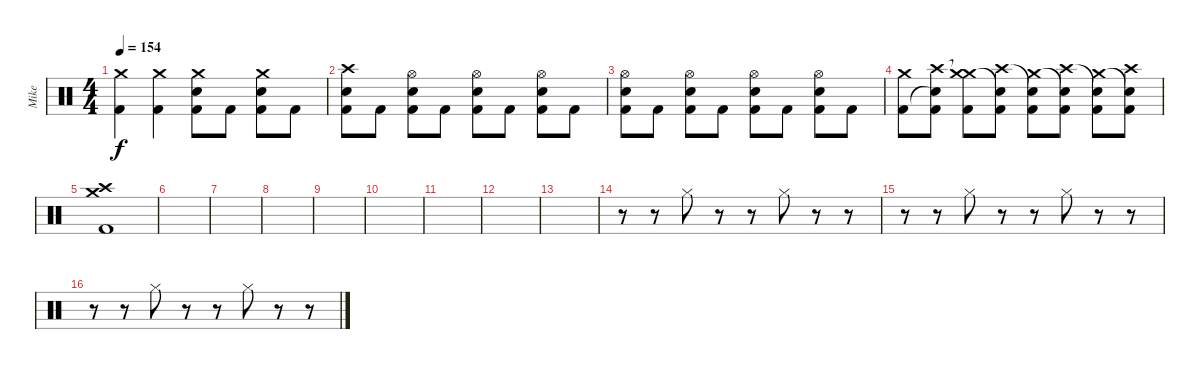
\track ("Mike " "Mike ") {instrument percussion}
\staff {score}
\articulation defaults
\ts (4 4)
\tempo 154
\clef neutral
\ks c
("Crash medium (hit)" "Kick (hit) 2").4{dy f} ("Crash medium (hit)" "Kick (hit) 2").4 ("Crash medium (hit)" "Electric Snare (hit)" "Kick (hit) 2").8 "Kick (hit) 2".8 ("Crash medium (hit)" "Electric Snare (hit)" "Kick (hit) 2").8 "Kick (hit) 2".8 |
("Crash high (hit)" "Electric Snare (hit)" "Kick (hit) 2").8 "Kick (hit) 2".8 ("Hi-Hat (open)" "Electric Snare (hit)" "Kick (hit) 2").8 "Kick (hit) 2".8 ("Hi-Hat (open)" "Electric Snare (hit)" "Kick (hit) 2").8 "Kick (hit) 2".8 ("Hi-Hat (open)" "Electric Snare (hit)" "Kick (hit) 2").8 "Kick (hit) 2".8 |
("Hi-Hat (open)" "Electric Snare (hit)" "Kick (hit) 2").8 "Kick (hit) 2".8 ("Hi-Hat (open)" "Electric Snare (hit)" "Kick (hit) 2").8 "Kick (hit) 2".8 ("Hi-Hat (open)" "Electric Snare (hit)" "Kick (hit) 2").8 "Kick (hit) 2".8 ("Hi-Hat (open)" "Electric Snare (hit)" "Kick (hit) 2").8 "Kick (hit) 2".8 |
("Crash medium (hit)" "Kick (hit) 2").8 ("Crash high (hit)" "Snare (hit)"{t} "Kick (hit) 2").8 ("Crash medium (hit)"{t} "Crash medium (hit)" "Kick (hit) 2").8 ("Crash high (hit)" "Snare (hit)"{t} "Kick (hit) 2").8 ("Snare (hit)"{t} "Crash medium (hit)" "Kick (hit) 2").8 ("Crash high (hit)" "Snare (hit)"{t} "Kick (hit) 2").8 ("Snare (hit)"{t} "Crash medium (hit)" "Kick (hit) 2").8 ("Crash high (hit)" "Snare (hit)"{t} "Kick (hit) 2").8 |
("Crash medium (hit)" "Crash high (hit)" "Kick (hit) 2").1 |
|
|
|
|
|
|
|
|
r.8 r.8 "Hi-Hat (closed)".8 r.8 r.8 "Hi-Hat (closed)".8 r.8 r.8 |
r.8 r.8 "Hi-Hat (closed)".8 r.8 r.8 "Hi-Hat (closed)".8 r.8 r.8 |
r.8 r.8 "Hi-Hat (closed)".8 r.8 r.8 "Hi-Hat (closed)".8 r.8 r.8
